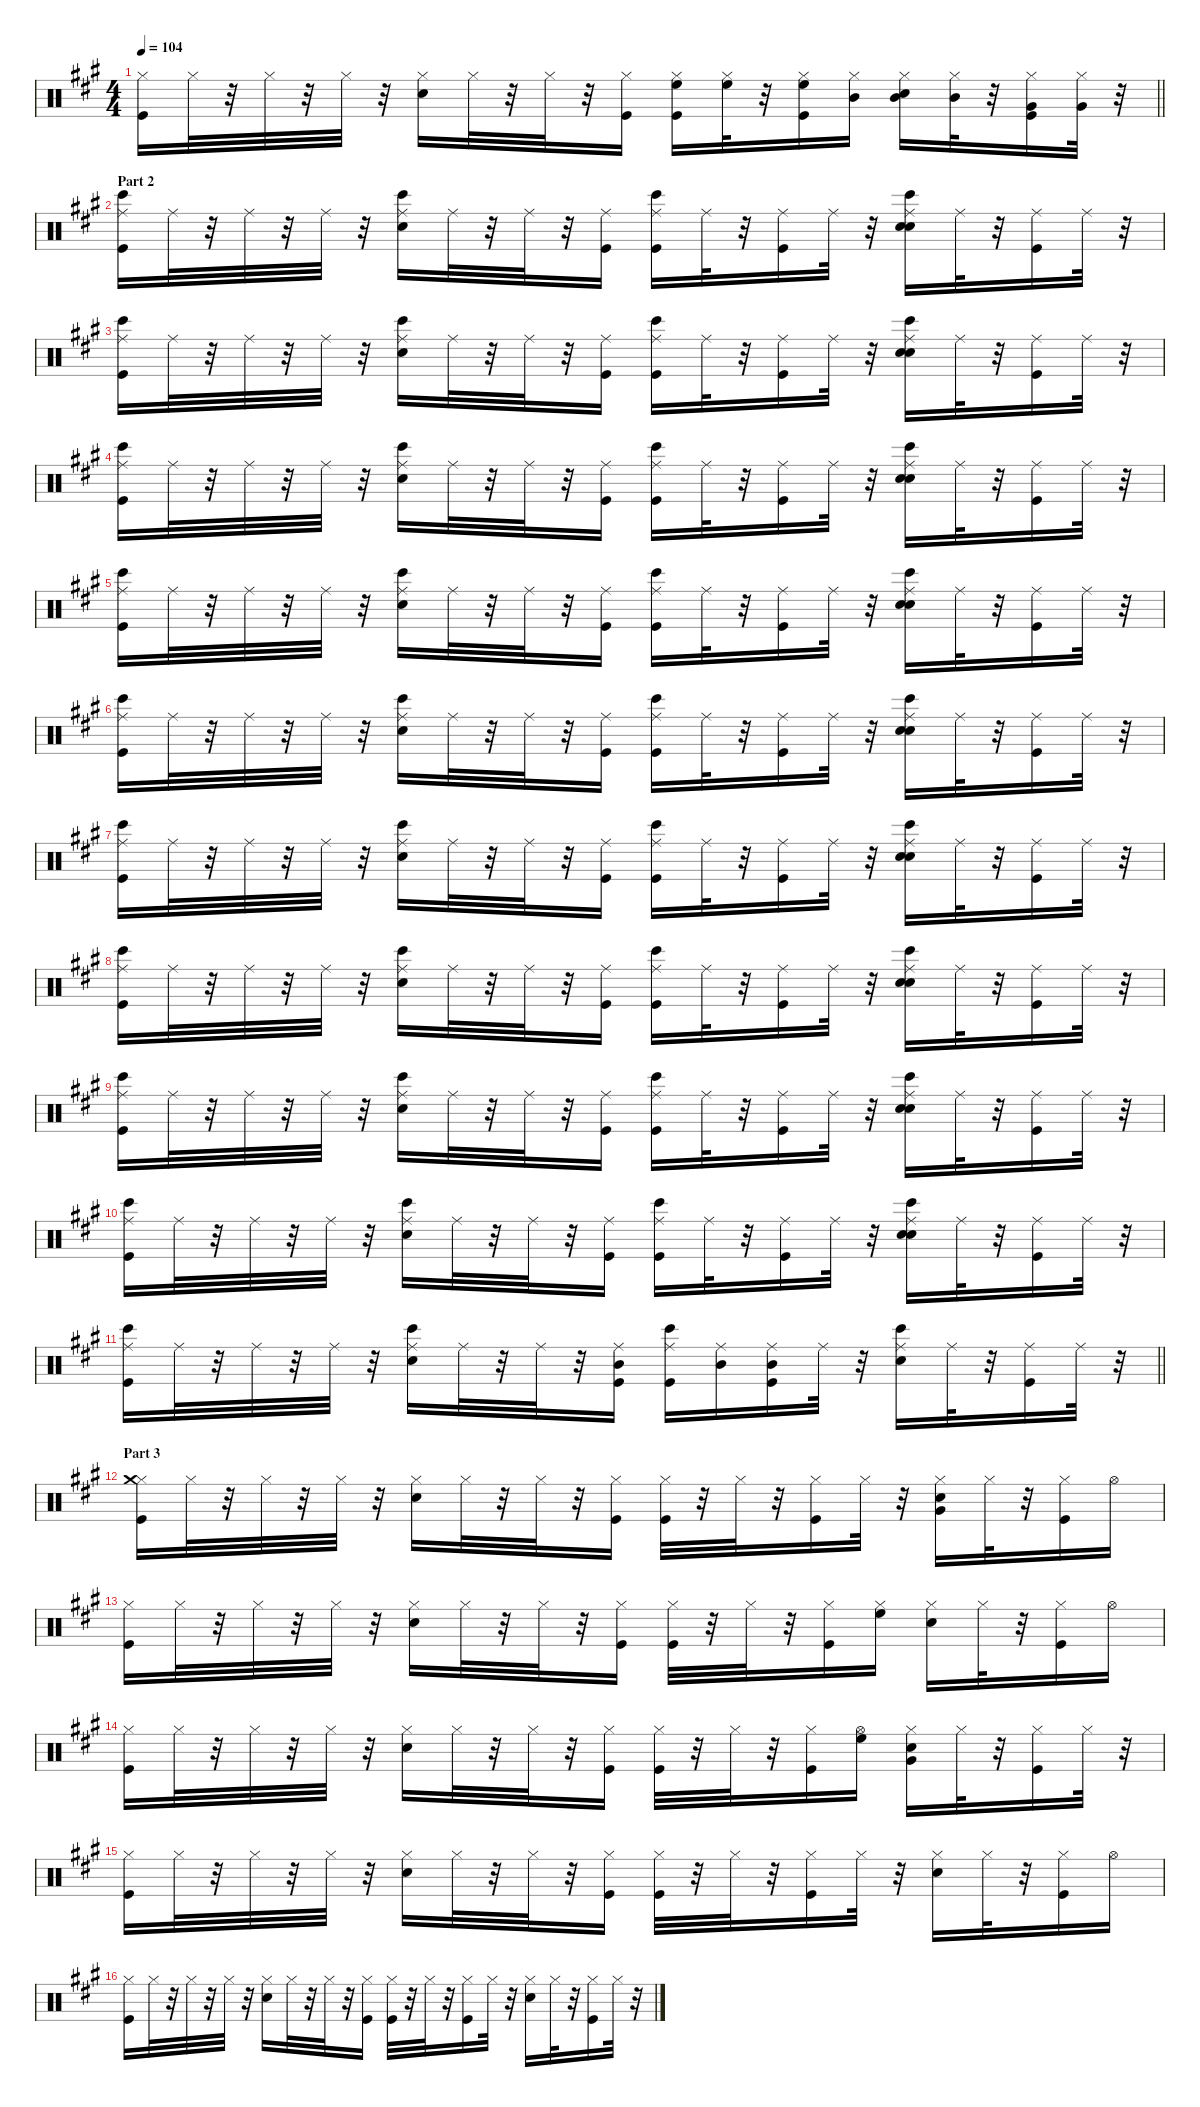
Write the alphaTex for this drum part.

\defaultSystemsLayout 4
\hideDynamics
\bracketExtendMode nobrackets
\singleTrackTrackNamePolicy hidden
\multiTrackTrackNamePolicy hidden
\otherSystemsTrackNameOrientation horizontal
\track ("Drums   " "drm.") {instrument percussion}
\staff {score}
\articulation defaults
\ts (4 4)
\tempo 104
\clef neutral
\barLineRight lightlight
\ks a
("Kick (hit)"{acc forcenatural} "Hi-Hat (closed)"{acc forcenatural}).16{dy f beam Down} "Hi-Hat (closed)"{acc forcenatural}.32{dy mp beam Down} r.32{beam Down} "Hi-Hat (closed)"{acc forcenatural}.32{dy f beam Down} r.32{beam Down} "Hi-Hat (closed)"{acc forcenatural}.32{beam Down} r.32{beam Down} ("Snare (hit) 2"{acc forcenatural} "Hi-Hat (closed)"{acc forcenatural}).16{dy fff beam Down} "Hi-Hat (closed)"{acc forcenatural}.32{dy mp beam Down} r.32{beam Down} "Hi-Hat (closed)"{acc forcenatural}.32{dy f beam Down} r.32{beam Down} ("Kick (hit)"{acc forcenatural} "Hi-Hat (closed)"{acc forcenatural}).16{dy mf beam Down} ("Kick (hit)"{acc forcenatural} "Hi-Hat (closed)"{acc forcenatural} "High Floor Tom (hit)"{acc forcenatural}).16{dy f beam Down} ("Hi-Hat (closed)"{acc forcenatural} "High Floor Tom (hit)"{acc forcenatural}).32{dy mp beam Down} r.32{beam Down} ("Kick (hit)"{acc forcenatural} "Hi-Hat (closed)"{acc forcenatural} "High Floor Tom (hit)"{acc forcenatural}).16{dy f beam Down} ("Hi-Hat (closed)"{acc forcenatural} "Mid Tom (hit)"{acc forcenatural}).16{beam Down} ("Snare (hit) 2"{acc forcenatural} "Hi-Hat (closed)"{acc forcenatural} "Mid Tom (hit)"{acc forcenatural}).16{dy fff beam Down} ("Hi-Hat (closed)"{acc forcenatural} "Mid Tom (hit)"{acc forcenatural}).32{dy mp beam Down} r.32{beam Down} ("Kick (hit)"{acc forcenatural} "Hi-Hat (closed)"{acc forcenatural} "Very Low Tom (hit)"{acc forcenatural}).16{dy f beam Down} ("Hi-Hat (closed)"{acc forcenatural} "Very Low Tom (hit)"{acc forcenatural}).32{beam Down} r.32{beam Down} |
\section ("" "Part 2")
("Kick (hit)"{acc forcenatural} "Ride (middle)"{acc forcenatural} "Bongo High (hit)"{acc forcenatural}).16{beam Down} "Ride (middle)"{acc forcenatural}.32{dy mp beam Down} r.32{beam Down} "Ride (middle)"{acc forcenatural}.32{beam Down} r.32{beam Down} "Ride (middle)"{acc forcenatural}.32{beam Down} r.32{beam Down} ("Snare (hit) 2"{acc forcenatural} "Ride (middle)"{acc forcenatural} "Bongo High (hit)"{acc forcenatural}).16{dy fff beam Down} "Ride (middle)"{acc forcenatural}.32{dy mp beam Down} r.32{beam Down} "Ride (middle)"{acc forcenatural}.32{beam Down} r.32{beam Down} ("Kick (hit)"{acc forcenatural} "Ride (middle)"{acc forcenatural}).16{dy mf beam Down} ("Kick (hit)"{acc forcenatural} "Ride (middle)"{acc forcenatural} "Bongo High (hit)"{acc forcenatural}).16{dy f beam Down} "Ride (middle)"{acc forcenatural}.32{dy mp beam Down} r.32{beam Down} ("Kick (hit)"{acc forcenatural} "Ride (middle)"{acc forcenatural}).16{dy f beam Down} "Ride (middle)"{acc forcenatural}.32{dy mp beam Down} r.32{beam Down} ("Hand Clap (hit)"{acc forcenatural} "Snare (hit) 2"{acc forcenatural} "Ride (middle)"{acc forcenatural} "Bongo High (hit)"{acc forcenatural}).16{dy f beam Down} "Ride (middle)"{acc forcenatural}.32{dy mp beam Down} r.32{beam Down} ("Kick (hit)"{acc forcenatural} "Ride (middle)"{acc forcenatural}).16{dy f beam Down} "Ride (middle)"{acc forcenatural}.32{dy mp beam Down} r.32{beam Down} |
("Kick (hit)"{acc forcenatural} "Ride (middle)"{acc forcenatural} "Bongo High (hit)"{acc forcenatural}).16{dy f beam Down} "Ride (middle)"{acc forcenatural}.32{dy mp beam Down} r.32{beam Down} "Ride (middle)"{acc forcenatural}.32{beam Down} r.32{beam Down} "Ride (middle)"{acc forcenatural}.32{beam Down} r.32{beam Down} ("Snare (hit) 2"{acc forcenatural} "Ride (middle)"{acc forcenatural} "Bongo High (hit)"{acc forcenatural}).16{dy fff beam Down} "Ride (middle)"{acc forcenatural}.32{dy mp beam Down} r.32{beam Down} "Ride (middle)"{acc forcenatural}.32{beam Down} r.32{beam Down} ("Kick (hit)"{acc forcenatural} "Ride (middle)"{acc forcenatural}).16{dy mf beam Down} ("Kick (hit)"{acc forcenatural} "Ride (middle)"{acc forcenatural} "Bongo High (hit)"{acc forcenatural}).16{dy f beam Down} "Ride (middle)"{acc forcenatural}.32{dy mp beam Down} r.32{beam Down} ("Kick (hit)"{acc forcenatural} "Ride (middle)"{acc forcenatural}).16{dy f beam Down} "Ride (middle)"{acc forcenatural}.32{dy mp beam Down} r.32{beam Down} ("Hand Clap (hit)"{acc forcenatural} "Snare (hit) 2"{acc forcenatural} "Ride (middle)"{acc forcenatural} "Bongo High (hit)"{acc forcenatural}).16{dy f beam Down} "Ride (middle)"{acc forcenatural}.32{dy mp beam Down} r.32{beam Down} ("Kick (hit)"{acc forcenatural} "Ride (middle)"{acc forcenatural}).16{dy f beam Down} "Ride (middle)"{acc forcenatural}.32{dy mp beam Down} r.32{beam Down} |
("Kick (hit)"{acc forcenatural} "Ride (middle)"{acc forcenatural} "Bongo High (hit)"{acc forcenatural}).16{dy f beam Down} "Ride (middle)"{acc forcenatural}.32{dy mp beam Down} r.32{beam Down} "Ride (middle)"{acc forcenatural}.32{beam Down} r.32{beam Down} "Ride (middle)"{acc forcenatural}.32{beam Down} r.32{beam Down} ("Snare (hit) 2"{acc forcenatural} "Ride (middle)"{acc forcenatural} "Bongo High (hit)"{acc forcenatural}).16{dy fff beam Down} "Ride (middle)"{acc forcenatural}.32{dy mp beam Down} r.32{beam Down} "Ride (middle)"{acc forcenatural}.32{beam Down} r.32{beam Down} ("Kick (hit)"{acc forcenatural} "Ride (middle)"{acc forcenatural}).16{dy mf beam Down} ("Kick (hit)"{acc forcenatural} "Ride (middle)"{acc forcenatural} "Bongo High (hit)"{acc forcenatural}).16{dy f beam Down} "Ride (middle)"{acc forcenatural}.32{dy mp beam Down} r.32{beam Down} ("Kick (hit)"{acc forcenatural} "Ride (middle)"{acc forcenatural}).16{dy f beam Down} "Ride (middle)"{acc forcenatural}.32{dy mp beam Down} r.32{beam Down} ("Hand Clap (hit)"{acc forcenatural} "Snare (hit) 2"{acc forcenatural} "Ride (middle)"{acc forcenatural} "Bongo High (hit)"{acc forcenatural}).16{dy f beam Down} "Ride (middle)"{acc forcenatural}.32{dy mp beam Down} r.32{beam Down} ("Kick (hit)"{acc forcenatural} "Ride (middle)"{acc forcenatural}).16{dy f beam Down} "Ride (middle)"{acc forcenatural}.32{dy mp beam Down} r.32{beam Down} |
("Kick (hit)"{acc forcenatural} "Ride (middle)"{acc forcenatural} "Bongo High (hit)"{acc forcenatural}).16{dy f beam Down} "Ride (middle)"{acc forcenatural}.32{dy mp beam Down} r.32{beam Down} "Ride (middle)"{acc forcenatural}.32{beam Down} r.32{beam Down} "Ride (middle)"{acc forcenatural}.32{beam Down} r.32{beam Down} ("Snare (hit) 2"{acc forcenatural} "Ride (middle)"{acc forcenatural} "Bongo High (hit)"{acc forcenatural}).16{dy fff beam Down} "Ride (middle)"{acc forcenatural}.32{dy mp beam Down} r.32{beam Down} "Ride (middle)"{acc forcenatural}.32{beam Down} r.32{beam Down} ("Kick (hit)"{acc forcenatural} "Ride (middle)"{acc forcenatural}).16{dy mf beam Down} ("Kick (hit)"{acc forcenatural} "Ride (middle)"{acc forcenatural} "Bongo High (hit)"{acc forcenatural}).16{dy f beam Down} "Ride (middle)"{acc forcenatural}.32{dy mp beam Down} r.32{beam Down} ("Kick (hit)"{acc forcenatural} "Ride (middle)"{acc forcenatural}).16{dy f beam Down} "Ride (middle)"{acc forcenatural}.32{dy mp beam Down} r.32{beam Down} ("Hand Clap (hit)"{acc forcenatural} "Snare (hit) 2"{acc forcenatural} "Ride (middle)"{acc forcenatural} "Bongo High (hit)"{acc forcenatural}).16{dy f beam Down} "Ride (middle)"{acc forcenatural}.32{dy mp beam Down} r.32{beam Down} ("Kick (hit)"{acc forcenatural} "Ride (middle)"{acc forcenatural}).16{dy f beam Down} "Ride (middle)"{acc forcenatural}.32{dy mp beam Down} r.32{beam Down} |
("Kick (hit)"{acc forcenatural} "Ride (middle)"{acc forcenatural} "Bongo High (hit)"{acc forcenatural}).16{dy f beam Down} "Ride (middle)"{acc forcenatural}.32{dy mp beam Down} r.32{beam Down} "Ride (middle)"{acc forcenatural}.32{beam Down} r.32{beam Down} "Ride (middle)"{acc forcenatural}.32{beam Down} r.32{beam Down} ("Snare (hit) 2"{acc forcenatural} "Ride (middle)"{acc forcenatural} "Bongo High (hit)"{acc forcenatural}).16{dy fff beam Down} "Ride (middle)"{acc forcenatural}.32{dy mp beam Down} r.32{beam Down} "Ride (middle)"{acc forcenatural}.32{beam Down} r.32{beam Down} ("Kick (hit)"{acc forcenatural} "Ride (middle)"{acc forcenatural}).16{dy mf beam Down} ("Kick (hit)"{acc forcenatural} "Ride (middle)"{acc forcenatural} "Bongo High (hit)"{acc forcenatural}).16{dy f beam Down} "Ride (middle)"{acc forcenatural}.32{dy mp beam Down} r.32{beam Down} ("Kick (hit)"{acc forcenatural} "Ride (middle)"{acc forcenatural}).16{dy f beam Down} "Ride (middle)"{acc forcenatural}.32{dy mp beam Down} r.32{beam Down} ("Hand Clap (hit)"{acc forcenatural} "Snare (hit) 2"{acc forcenatural} "Ride (middle)"{acc forcenatural} "Bongo High (hit)"{acc forcenatural}).16{dy f beam Down} "Ride (middle)"{acc forcenatural}.32{dy mp beam Down} r.32{beam Down} ("Kick (hit)"{acc forcenatural} "Ride (middle)"{acc forcenatural}).16{dy f beam Down} "Ride (middle)"{acc forcenatural}.32{dy mp beam Down} r.32{beam Down} |
("Kick (hit)"{acc forcenatural} "Ride (middle)"{acc forcenatural} "Bongo High (hit)"{acc forcenatural}).16{dy f beam Down} "Ride (middle)"{acc forcenatural}.32{dy mp beam Down} r.32{beam Down} "Ride (middle)"{acc forcenatural}.32{beam Down} r.32{beam Down} "Ride (middle)"{acc forcenatural}.32{beam Down} r.32{beam Down} ("Snare (hit) 2"{acc forcenatural} "Ride (middle)"{acc forcenatural} "Bongo High (hit)"{acc forcenatural}).16{dy fff beam Down} "Ride (middle)"{acc forcenatural}.32{dy mp beam Down} r.32{beam Down} "Ride (middle)"{acc forcenatural}.32{beam Down} r.32{beam Down} ("Kick (hit)"{acc forcenatural} "Ride (middle)"{acc forcenatural}).16{dy mf beam Down} ("Kick (hit)"{acc forcenatural} "Ride (middle)"{acc forcenatural} "Bongo High (hit)"{acc forcenatural}).16{dy f beam Down} "Ride (middle)"{acc forcenatural}.32{dy mp beam Down} r.32{beam Down} ("Kick (hit)"{acc forcenatural} "Ride (middle)"{acc forcenatural}).16{dy f beam Down} "Ride (middle)"{acc forcenatural}.32{dy mp beam Down} r.32{beam Down} ("Hand Clap (hit)"{acc forcenatural} "Snare (hit) 2"{acc forcenatural} "Ride (middle)"{acc forcenatural} "Bongo High (hit)"{acc forcenatural}).16{dy f beam Down} "Ride (middle)"{acc forcenatural}.32{dy mp beam Down} r.32{beam Down} ("Kick (hit)"{acc forcenatural} "Ride (middle)"{acc forcenatural}).16{dy f beam Down} "Ride (middle)"{acc forcenatural}.32{dy mp beam Down} r.32{beam Down} |
("Kick (hit)"{acc forcenatural} "Ride (middle)"{acc forcenatural} "Bongo High (hit)"{acc forcenatural}).16{dy f beam Down} "Ride (middle)"{acc forcenatural}.32{dy mp beam Down} r.32{beam Down} "Ride (middle)"{acc forcenatural}.32{beam Down} r.32{beam Down} "Ride (middle)"{acc forcenatural}.32{beam Down} r.32{beam Down} ("Snare (hit) 2"{acc forcenatural} "Ride (middle)"{acc forcenatural} "Bongo High (hit)"{acc forcenatural}).16{dy fff beam Down} "Ride (middle)"{acc forcenatural}.32{dy mp beam Down} r.32{beam Down} "Ride (middle)"{acc forcenatural}.32{beam Down} r.32{beam Down} ("Kick (hit)"{acc forcenatural} "Ride (middle)"{acc forcenatural}).16{dy mf beam Down} ("Kick (hit)"{acc forcenatural} "Ride (middle)"{acc forcenatural} "Bongo High (hit)"{acc forcenatural}).16{dy f beam Down} "Ride (middle)"{acc forcenatural}.32{dy mp beam Down} r.32{beam Down} ("Kick (hit)"{acc forcenatural} "Ride (middle)"{acc forcenatural}).16{dy f beam Down} "Ride (middle)"{acc forcenatural}.32{dy mp beam Down} r.32{beam Down} ("Hand Clap (hit)"{acc forcenatural} "Snare (hit) 2"{acc forcenatural} "Ride (middle)"{acc forcenatural} "Bongo High (hit)"{acc forcenatural}).16{dy f beam Down} "Ride (middle)"{acc forcenatural}.32{dy mp beam Down} r.32{beam Down} ("Kick (hit)"{acc forcenatural} "Ride (middle)"{acc forcenatural}).16{dy f beam Down} "Ride (middle)"{acc forcenatural}.32{dy mp beam Down} r.32{beam Down} |
("Kick (hit)"{acc forcenatural} "Ride (middle)"{acc forcenatural} "Bongo High (hit)"{acc forcenatural}).16{dy f beam Down} "Ride (middle)"{acc forcenatural}.32{dy mp beam Down} r.32{beam Down} "Ride (middle)"{acc forcenatural}.32{beam Down} r.32{beam Down} "Ride (middle)"{acc forcenatural}.32{beam Down} r.32{beam Down} ("Snare (hit) 2"{acc forcenatural} "Ride (middle)"{acc forcenatural} "Bongo High (hit)"{acc forcenatural}).16{dy fff beam Down} "Ride (middle)"{acc forcenatural}.32{dy mp beam Down} r.32{beam Down} "Ride (middle)"{acc forcenatural}.32{beam Down} r.32{beam Down} ("Kick (hit)"{acc forcenatural} "Ride (middle)"{acc forcenatural}).16{dy mf beam Down} ("Kick (hit)"{acc forcenatural} "Ride (middle)"{acc forcenatural} "Bongo High (hit)"{acc forcenatural}).16{dy f beam Down} "Ride (middle)"{acc forcenatural}.32{dy mp beam Down} r.32{beam Down} ("Kick (hit)"{acc forcenatural} "Ride (middle)"{acc forcenatural}).16{dy f beam Down} "Ride (middle)"{acc forcenatural}.32{dy mp beam Down} r.32{beam Down} ("Hand Clap (hit)"{acc forcenatural} "Snare (hit) 2"{acc forcenatural} "Ride (middle)"{acc forcenatural} "Bongo High (hit)"{acc forcenatural}).16{dy f beam Down} "Ride (middle)"{acc forcenatural}.32{dy mp beam Down} r.32{beam Down} ("Kick (hit)"{acc forcenatural} "Ride (middle)"{acc forcenatural}).16{dy f beam Down} "Ride (middle)"{acc forcenatural}.32{dy mp beam Down} r.32{beam Down} |
("Kick (hit)"{acc forcenatural} "Ride (middle)"{acc forcenatural} "Bongo High (hit)"{acc forcenatural}).16{dy f beam Down} "Ride (middle)"{acc forcenatural}.32{dy mp beam Down} r.32{beam Down} "Ride (middle)"{acc forcenatural}.32{beam Down} r.32{beam Down} "Ride (middle)"{acc forcenatural}.32{beam Down} r.32{beam Down} ("Snare (hit) 2"{acc forcenatural} "Ride (middle)"{acc forcenatural} "Bongo High (hit)"{acc forcenatural}).16{dy fff beam Down} "Ride (middle)"{acc forcenatural}.32{dy mp beam Down} r.32{beam Down} "Ride (middle)"{acc forcenatural}.32{beam Down} r.32{beam Down} ("Kick (hit)"{acc forcenatural} "Ride (middle)"{acc forcenatural}).16{dy mf beam Down} ("Kick (hit)"{acc forcenatural} "Ride (middle)"{acc forcenatural} "Bongo High (hit)"{acc forcenatural}).16{dy f beam Down} "Ride (middle)"{acc forcenatural}.32{dy mp beam Down} r.32{beam Down} ("Kick (hit)"{acc forcenatural} "Ride (middle)"{acc forcenatural}).16{dy f beam Down} "Ride (middle)"{acc forcenatural}.32{dy mp beam Down} r.32{beam Down} ("Hand Clap (hit)"{acc forcenatural} "Snare (hit) 2"{acc forcenatural} "Ride (middle)"{acc forcenatural} "Bongo High (hit)"{acc forcenatural}).16{dy f beam Down} "Ride (middle)"{acc forcenatural}.32{dy mp beam Down} r.32{beam Down} ("Kick (hit)"{acc forcenatural} "Ride (middle)"{acc forcenatural}).16{dy f beam Down} "Ride (middle)"{acc forcenatural}.32{dy mp beam Down} r.32{beam Down} |
\barLineRight lightlight
("Kick (hit)"{acc forcenatural} "Ride (middle)"{acc forcenatural} "Bongo High (hit)"{acc forcenatural}).16{dy f beam Down} "Ride (middle)"{acc forcenatural}.32{dy mp beam Down} r.32{beam Down} "Ride (middle)"{acc forcenatural}.32{beam Down} r.32{beam Down} "Ride (middle)"{acc forcenatural}.32{beam Down} r.32{beam Down} ("Snare (hit) 2"{acc forcenatural} "Ride (middle)"{acc forcenatural} "Bongo High (hit)"{acc forcenatural}).16{dy fff beam Down} "Ride (middle)"{acc forcenatural}.32{dy mp beam Down} r.32{beam Down} "Ride (middle)"{acc forcenatural}.32{beam Down} r.32{beam Down} ("Kick (hit)"{acc forcenatural} "Mid Tom (hit)"{acc forcenatural} "Ride (middle)"{acc forcenatural}).16{dy mf beam Down} ("Kick (hit)"{acc forcenatural} "Ride (middle)"{acc forcenatural} "Bongo High (hit)"{acc forcenatural}).16{dy f beam Down} ("Mid Tom (hit)"{acc forcenatural} "Ride (middle)"{acc forcenatural}).16{beam Down} ("Kick (hit)"{acc forcenatural} "Mid Tom (hit)"{acc forcenatural} "Ride (middle)"{acc forcenatural}).16{beam Down} "Ride (middle)"{acc forcenatural}.32{dy mp beam Down} r.32{beam Down} ("Snare (hit) 2"{acc forcenatural} "Ride (middle)"{acc forcenatural} "Bongo High (hit)"{acc forcenatural}).16{dy fff beam Down} "Ride (middle)"{acc forcenatural}.32{dy mp beam Down} r.32{beam Down} ("Kick (hit)"{acc forcenatural} "Ride (middle)"{acc forcenatural}).16{dy f beam Down} "Ride (middle)"{acc forcenatural}.32{dy mp beam Down} r.32{beam Down} |
\section ("" "Part 3")
("Kick (hit)"{acc forcenatural} "Hi-Hat (closed)"{acc forcenatural} "Crash medium (hit)"{acc forcenatural}).16{dy f beam Down} "Hi-Hat (closed)"{acc forcenatural}.32{dy mp beam Down} r.32{beam Down} "Hi-Hat (closed)"{acc forcenatural}.32{dy f beam Down} r.32{beam Down} "Hi-Hat (closed)"{acc forcenatural}.32{beam Down} r.32{beam Down} ("Snare (hit) 2"{acc forcenatural} "Hi-Hat (closed)"{acc forcenatural}).16{dy fff beam Down} "Hi-Hat (closed)"{acc forcenatural}.32{dy mp beam Down} r.32{beam Down} "Hi-Hat (closed)"{acc forcenatural}.32{dy f beam Down} r.32{beam Down} ("Kick (hit)"{acc forcenatural} "Hi-Hat (closed)"{acc forcenatural}).16{dy mf beam Down} ("Kick (hit)"{acc forcenatural} "Hi-Hat (closed)"{acc forcenatural}).32{dy f beam Down} r.32{beam Down} "Hi-Hat (closed)"{acc forcenatural}.32{dy mp beam Down} r.32{beam Down} ("Kick (hit)"{acc forcenatural} "Hi-Hat (closed)"{acc forcenatural}).16{dy f beam Down} "Hi-Hat (closed)"{acc forcenatural}.32{beam Down} r.32{beam Down} ("Snare (hit) 2"{acc forcenatural} "Hi-Hat (closed)"{acc forcenatural} "Very Low Tom (hit)"{acc forcenatural}).16{dy fff beam Down} "Hi-Hat (closed)"{acc forcenatural}.32{dy mp beam Down} r.32{beam Down} ("Kick (hit)"{acc forcenatural} "Hi-Hat (closed)"{acc forcenatural}).16{dy f beam Down} "Hi-Hat (open)"{acc forcenatural}.16{beam Down} |
("Kick (hit)"{acc forcenatural} "Hi-Hat (closed)"{acc forcenatural}).16{beam Down} "Hi-Hat (closed)"{acc forcenatural}.32{dy mp beam Down} r.32{beam Down} "Hi-Hat (closed)"{acc forcenatural}.32{dy f beam Down} r.32{beam Down} "Hi-Hat (closed)"{acc forcenatural}.32{beam Down} r.32{beam Down} ("Snare (hit) 2"{acc forcenatural} "Hi-Hat (closed)"{acc forcenatural}).16{dy fff beam Down} "Hi-Hat (closed)"{acc forcenatural}.32{dy mp beam Down} r.32{beam Down} "Hi-Hat (closed)"{acc forcenatural}.32{dy f beam Down} r.32{beam Down} ("Kick (hit)"{acc forcenatural} "Hi-Hat (closed)"{acc forcenatural}).16{dy mf beam Down} ("Kick (hit)"{acc forcenatural} "Hi-Hat (closed)"{acc forcenatural}).32{dy f beam Down} r.32{beam Down} "Hi-Hat (closed)"{acc forcenatural}.32{dy mp beam Down} r.32{beam Down} ("Kick (hit)"{acc forcenatural} "Hi-Hat (closed)"{acc forcenatural}).16{dy f beam Down} ("Hi-Hat (closed)"{acc forcenatural} "High Floor Tom (hit)"{acc forcenatural}).16{beam Down} ("Snare (hit) 2"{acc forcenatural} "Hi-Hat (closed)"{acc forcenatural}).16{dy fff beam Down} "Hi-Hat (closed)"{acc forcenatural}.32{dy mp beam Down} r.32{beam Down} ("Kick (hit)"{acc forcenatural} "Hi-Hat (closed)"{acc forcenatural}).16{dy f beam Down} "Hi-Hat (open)"{acc forcenatural}.16{beam Down} |
("Kick (hit)"{acc forcenatural} "Hi-Hat (closed)"{acc forcenatural}).16{beam Down} "Hi-Hat (closed)"{acc forcenatural}.32{dy mp beam Down} r.32{beam Down} "Hi-Hat (closed)"{acc forcenatural}.32{dy f beam Down} r.32{beam Down} "Hi-Hat (closed)"{acc forcenatural}.32{beam Down} r.32{beam Down} ("Snare (hit) 2"{acc forcenatural} "Hi-Hat (closed)"{acc forcenatural}).16{dy fff beam Down} "Hi-Hat (closed)"{acc forcenatural}.32{dy mp beam Down} r.32{beam Down} "Hi-Hat (closed)"{acc forcenatural}.32{dy f beam Down} r.32{beam Down} ("Kick (hit)"{acc forcenatural} "Hi-Hat (closed)"{acc forcenatural}).16{dy mf beam Down} ("Kick (hit)"{acc forcenatural} "Hi-Hat (closed)"{acc forcenatural}).32{dy f beam Down} r.32{beam Down} "Hi-Hat (closed)"{acc forcenatural}.32{dy mp beam Down} r.32{beam Down} ("Kick (hit)"{acc forcenatural} "Hi-Hat (closed)"{acc forcenatural}).16{dy f beam Down} ("Hi-Hat (open)"{acc forcenatural} "High Floor Tom (hit)"{acc forcenatural}).16{beam Down} ("Snare (hit) 2"{acc forcenatural} "Hi-Hat (closed)"{acc forcenatural} "Very Low Tom (hit)"{acc forcenatural}).16{dy fff beam Down} "Hi-Hat (closed)"{acc forcenatural}.32{dy mp beam Down} r.32{beam Down} ("Kick (hit)"{acc forcenatural} "Hi-Hat (closed)"{acc forcenatural}).16{dy f beam Down} "Hi-Hat (closed)"{acc forcenatural}.32{beam Down} r.32{beam Down} |
("Kick (hit)"{acc forcenatural} "Hi-Hat (closed)"{acc forcenatural}).16{beam Down} "Hi-Hat (closed)"{acc forcenatural}.32{dy mp beam Down} r.32{beam Down} "Hi-Hat (closed)"{acc forcenatural}.32{dy f beam Down} r.32{beam Down} "Hi-Hat (closed)"{acc forcenatural}.32{beam Down} r.32{beam Down} ("Snare (hit) 2"{acc forcenatural} "Hi-Hat (closed)"{acc forcenatural}).16{dy fff beam Down} "Hi-Hat (closed)"{acc forcenatural}.32{dy mp beam Down} r.32{beam Down} "Hi-Hat (closed)"{acc forcenatural}.32{dy f beam Down} r.32{beam Down} ("Kick (hit)"{acc forcenatural} "Hi-Hat (closed)"{acc forcenatural}).16{dy mf beam Down} ("Kick (hit)"{acc forcenatural} "Hi-Hat (closed)"{acc forcenatural}).32{dy f beam Down} r.32{beam Down} "Hi-Hat (closed)"{acc forcenatural}.32{dy mp beam Down} r.32{beam Down} ("Kick (hit)"{acc forcenatural} "Hi-Hat (closed)"{acc forcenatural}).16{dy f beam Down} "Hi-Hat (closed)"{acc forcenatural}.32{beam Down} r.32{beam Down} ("Snare (hit) 2"{acc forcenatural} "Hi-Hat (closed)"{acc forcenatural}).16{dy fff beam Down} "Hi-Hat (closed)"{acc forcenatural}.32{dy mp beam Down} r.32{beam Down} ("Kick (hit)"{acc forcenatural} "Hi-Hat (closed)"{acc forcenatural}).16{dy f beam Down} "Hi-Hat (open)"{acc forcenatural}.16{beam Down} |
("Kick (hit)"{acc forcenatural} "Hi-Hat (closed)"{acc forcenatural}).16{beam Down} "Hi-Hat (closed)"{acc forcenatural}.32{dy mp beam Down} r.32{beam Down} "Hi-Hat (closed)"{acc forcenatural}.32{dy f beam Down} r.32{beam Down} "Hi-Hat (closed)"{acc forcenatural}.32{beam Down} r.32{beam Down} ("Snare (hit) 2"{acc forcenatural} "Hi-Hat (closed)"{acc forcenatural}).16{dy fff beam Down} "Hi-Hat (closed)"{acc forcenatural}.32{dy mp beam Down} r.32{beam Down} "Hi-Hat (closed)"{acc forcenatural}.32{dy f beam Down} r.32{beam Down} ("Kick (hit)"{acc forcenatural} "Hi-Hat (closed)"{acc forcenatural}).16{dy mf beam Down} ("Kick (hit)"{acc forcenatural} "Hi-Hat (closed)"{acc forcenatural}).32{dy f beam Down} r.32{beam Down} "Hi-Hat (closed)"{acc forcenatural}.32{dy mp beam Down} r.32{beam Down} ("Kick (hit)"{acc forcenatural} "Hi-Hat (closed)"{acc forcenatural}).16{dy f beam Down} "Hi-Hat (closed)"{acc forcenatural}.32{beam Down} r.32{beam Down} ("Snare (hit) 2"{acc forcenatural} "Hi-Hat (closed)"{acc forcenatural}).16{dy fff beam Down} "Hi-Hat (closed)"{acc forcenatural}.32{dy mp beam Down} r.32{beam Down} ("Kick (hit)"{acc forcenatural} "Hi-Hat (closed)"{acc forcenatural}).16{dy f beam Down} "Hi-Hat (closed)"{acc forcenatural}.32{beam Down} r.32{beam Down}
